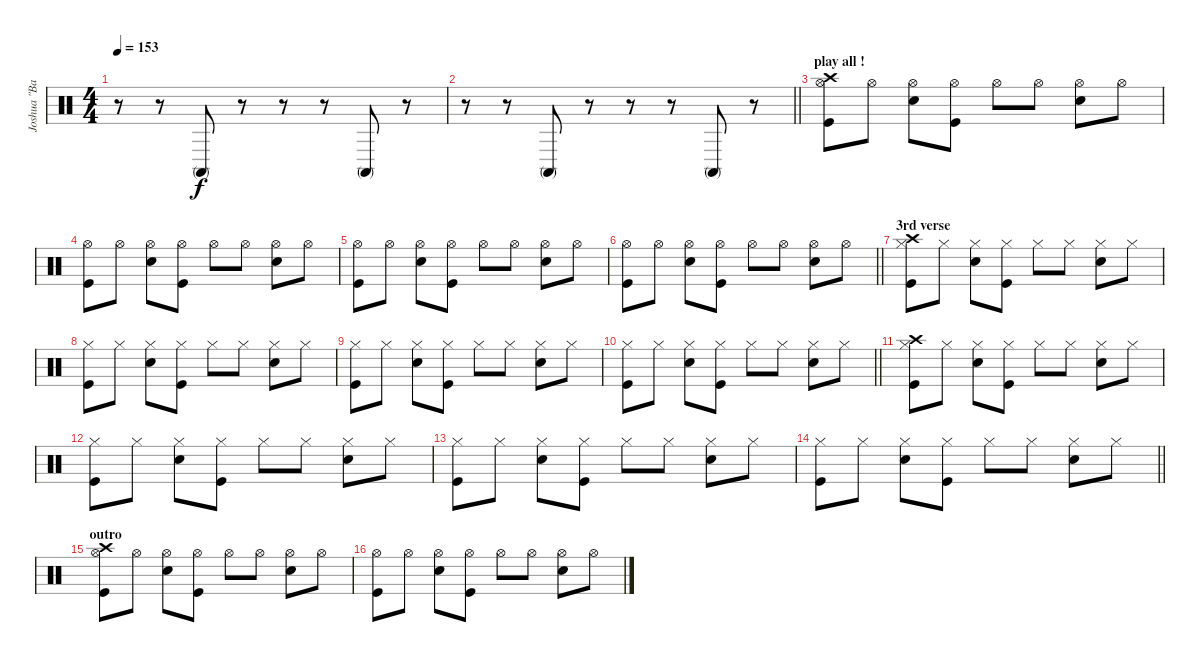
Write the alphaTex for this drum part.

\track ("Joshua \"Baby Duck\" Homme" "Joshua \"Ba") {instrument percussion}
\staff {score}
\articulation defaults
\ts (4 4)
\tempo 153
\clef neutral
\ks c
r.8{dy f} r.8 "Conga high (mute)".8 r.8 r.8 r.8 "Conga high (mute)".8 r.8 |
\barLineRight lightlight
r.8 r.8 "Conga high (mute)".8 r.8 r.8 r.8 "Conga high (mute)".8 r.8 |
\section ("" "play all !")
("Kick (hit)" "Hi-Hat (open)" "Crash high (hit)").8 "Hi-Hat (open)".8 ("Electric Snare (hit)" "Hi-Hat (open)").8 ("Kick (hit)" "Hi-Hat (open)").8 "Hi-Hat (open)".8 "Hi-Hat (open)".8 ("Electric Snare (hit)" "Hi-Hat (open)").8 "Hi-Hat (open)".8 |
("Kick (hit)" "Hi-Hat (open)").8 "Hi-Hat (open)".8 ("Electric Snare (hit)" "Hi-Hat (open)").8 ("Kick (hit)" "Hi-Hat (open)").8 "Hi-Hat (open)".8 "Hi-Hat (open)".8 ("Electric Snare (hit)" "Hi-Hat (open)").8 "Hi-Hat (open)".8 |
("Kick (hit)" "Hi-Hat (open)").8 "Hi-Hat (open)".8 ("Electric Snare (hit)" "Hi-Hat (open)").8 ("Kick (hit)" "Hi-Hat (open)").8 "Hi-Hat (open)".8 "Hi-Hat (open)".8 ("Electric Snare (hit)" "Hi-Hat (open)").8 "Hi-Hat (open)".8 |
\barLineRight lightlight
("Kick (hit)" "Hi-Hat (open)").8 "Hi-Hat (open)".8 ("Electric Snare (hit)" "Hi-Hat (open)").8 ("Kick (hit)" "Hi-Hat (open)").8 "Hi-Hat (open)".8 "Hi-Hat (open)".8 ("Electric Snare (hit)" "Hi-Hat (open)").8 "Hi-Hat (open)".8 |
\section ("" "3rd verse")
("Kick (hit)" "Hi-Hat (closed)" "Crash high (hit)").8 "Hi-Hat (closed)".8 ("Electric Snare (hit)" "Hi-Hat (closed)").8 ("Kick (hit)" "Hi-Hat (closed)").8 "Hi-Hat (closed)".8 "Hi-Hat (closed)".8 ("Electric Snare (hit)" "Hi-Hat (closed)").8 "Hi-Hat (closed)".8 |
("Kick (hit)" "Hi-Hat (closed)").8 "Hi-Hat (closed)".8 ("Electric Snare (hit)" "Hi-Hat (closed)").8 ("Kick (hit)" "Hi-Hat (closed)").8 "Hi-Hat (closed)".8 "Hi-Hat (closed)".8 ("Electric Snare (hit)" "Hi-Hat (closed)").8 "Hi-Hat (closed)".8 |
("Kick (hit)" "Hi-Hat (closed)").8 "Hi-Hat (closed)".8 ("Electric Snare (hit)" "Hi-Hat (closed)").8 ("Kick (hit)" "Hi-Hat (closed)").8 "Hi-Hat (closed)".8 "Hi-Hat (closed)".8 ("Electric Snare (hit)" "Hi-Hat (closed)").8 "Hi-Hat (closed)".8 |
\barLineRight lightlight
("Kick (hit)" "Hi-Hat (closed)").8 "Hi-Hat (closed)".8 ("Electric Snare (hit)" "Hi-Hat (closed)").8 ("Kick (hit)" "Hi-Hat (closed)").8 "Hi-Hat (closed)".8 "Hi-Hat (closed)".8 ("Electric Snare (hit)" "Hi-Hat (closed)").8 "Hi-Hat (closed)".8 |
\section ("" "")
("Kick (hit)" "Hi-Hat (closed)" "Crash high (hit)").8 "Hi-Hat (closed)".8 ("Electric Snare (hit)" "Hi-Hat (closed)").8 ("Kick (hit)" "Hi-Hat (closed)").8 "Hi-Hat (closed)".8 "Hi-Hat (closed)".8 ("Electric Snare (hit)" "Hi-Hat (closed)").8 "Hi-Hat (closed)".8 |
("Kick (hit)" "Hi-Hat (closed)").8 "Hi-Hat (closed)".8 ("Electric Snare (hit)" "Hi-Hat (closed)").8 ("Kick (hit)" "Hi-Hat (closed)").8 "Hi-Hat (closed)".8 "Hi-Hat (closed)".8 ("Electric Snare (hit)" "Hi-Hat (closed)").8 "Hi-Hat (closed)".8 |
("Kick (hit)" "Hi-Hat (closed)").8 "Hi-Hat (closed)".8 ("Electric Snare (hit)" "Hi-Hat (closed)").8 ("Kick (hit)" "Hi-Hat (closed)").8 "Hi-Hat (closed)".8 "Hi-Hat (closed)".8 ("Electric Snare (hit)" "Hi-Hat (closed)").8 "Hi-Hat (closed)".8 |
\barLineRight lightlight
("Kick (hit)" "Hi-Hat (closed)").8 "Hi-Hat (closed)".8 ("Electric Snare (hit)" "Hi-Hat (closed)").8 ("Kick (hit)" "Hi-Hat (closed)").8 "Hi-Hat (closed)".8 "Hi-Hat (closed)".8 ("Electric Snare (hit)" "Hi-Hat (closed)").8 "Hi-Hat (closed)".8 |
\section ("" "outro")
("Kick (hit)" "Hi-Hat (open)" "Crash high (hit)").8 "Hi-Hat (open)".8 ("Electric Snare (hit)" "Hi-Hat (open)").8 ("Kick (hit)" "Hi-Hat (open)").8 "Hi-Hat (open)".8 "Hi-Hat (open)".8 ("Electric Snare (hit)" "Hi-Hat (open)").8 "Hi-Hat (open)".8 |
("Kick (hit)" "Hi-Hat (open)").8 "Hi-Hat (open)".8 ("Electric Snare (hit)" "Hi-Hat (open)").8 ("Kick (hit)" "Hi-Hat (open)").8 "Hi-Hat (open)".8 "Hi-Hat (open)".8 ("Electric Snare (hit)" "Hi-Hat (open)").8 "Hi-Hat (open)".8
